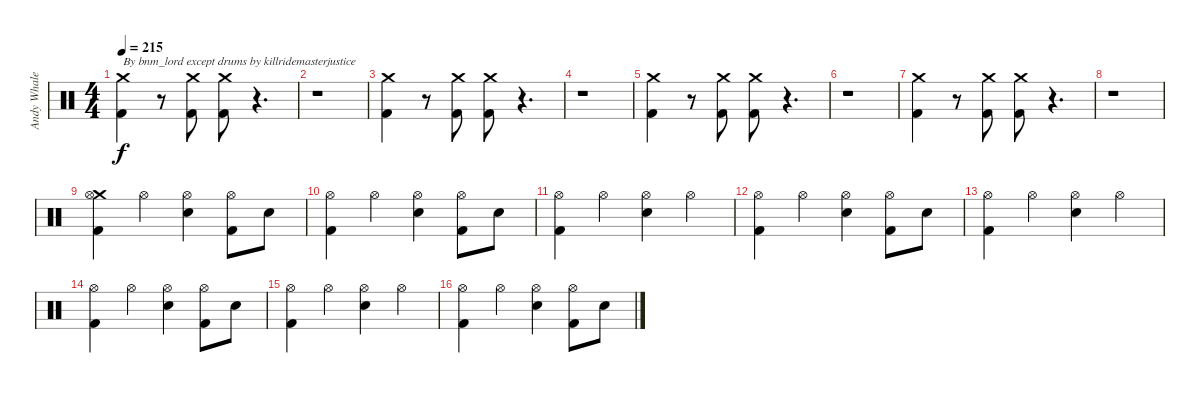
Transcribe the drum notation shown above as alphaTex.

\track ("Andy Whale" "Andy Whale") {instrument percussion}
\staff {score}
\articulation defaults
\ts (4 4)
\tempo 215
\clef neutral
\ks c
("Crash medium (hit)" "Kick (hit) 2").4{txt "By bnm_lord except drums by killridemasterjustice" dy f} r.8 ("Crash medium (hit)" "Kick (hit) 2").8 ("Crash medium (hit)" "Kick (hit) 2").8 r.4{d} |
r.1 |
("Crash medium (hit)" "Kick (hit) 2").4 r.8 ("Crash medium (hit)" "Kick (hit) 2").8 ("Crash medium (hit)" "Kick (hit) 2").8 r.4{d} |
r.1 |
("Crash medium (hit)" "Kick (hit) 2").4 r.8 ("Crash medium (hit)" "Kick (hit) 2").8 ("Crash medium (hit)" "Kick (hit) 2").8 r.4{d} |
r.1 |
("Crash medium (hit)" "Kick (hit) 2").4 r.8 ("Crash medium (hit)" "Kick (hit) 2").8 ("Crash medium (hit)" "Kick (hit) 2").8 r.4{d} |
r.1 |
("Crash medium (hit)" "Hi-Hat (open)" "Kick (hit) 2").4 "Hi-Hat (open)".4 ("Hi-Hat (open)" "Electric Snare (hit)").4 ("Hi-Hat (open)" "Kick (hit) 2").8 "Electric Snare (hit)".8 |
("Hi-Hat (open)" "Kick (hit) 2").4 "Hi-Hat (open)".4 ("Hi-Hat (open)" "Electric Snare (hit)").4 ("Hi-Hat (open)" "Kick (hit) 2").8 "Electric Snare (hit)".8 |
("Hi-Hat (open)" "Kick (hit) 2").4 "Hi-Hat (open)".4 ("Hi-Hat (open)" "Electric Snare (hit)").4 "Hi-Hat (open)".4 |
("Hi-Hat (open)" "Kick (hit) 2").4 "Hi-Hat (open)".4 ("Hi-Hat (open)" "Electric Snare (hit)").4 ("Hi-Hat (open)" "Kick (hit) 2").8 "Electric Snare (hit)".8 |
("Hi-Hat (open)" "Kick (hit) 2").4 "Hi-Hat (open)".4 ("Hi-Hat (open)" "Electric Snare (hit)").4 "Hi-Hat (open)".4 |
("Hi-Hat (open)" "Kick (hit) 2").4 "Hi-Hat (open)".4 ("Hi-Hat (open)" "Electric Snare (hit)").4 ("Hi-Hat (open)" "Kick (hit) 2").8 "Electric Snare (hit)".8 |
("Hi-Hat (open)" "Kick (hit) 2").4 "Hi-Hat (open)".4 ("Hi-Hat (open)" "Electric Snare (hit)").4 "Hi-Hat (open)".4 |
("Hi-Hat (open)" "Kick (hit) 2").4 "Hi-Hat (open)".4 ("Hi-Hat (open)" "Electric Snare (hit)").4 ("Hi-Hat (open)" "Kick (hit) 2").8 "Electric Snare (hit)".8
